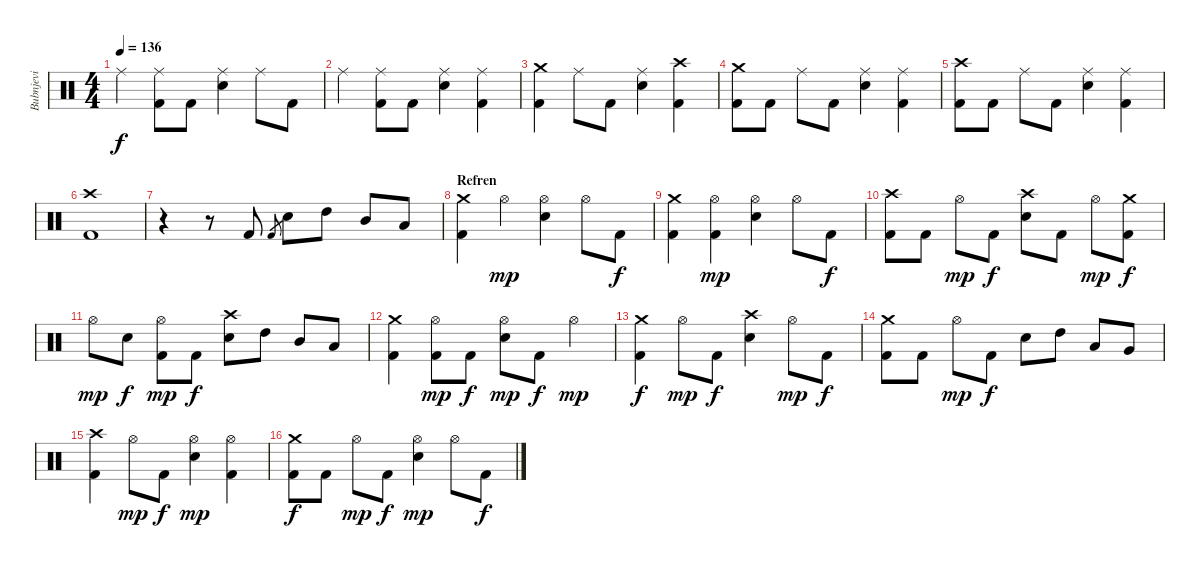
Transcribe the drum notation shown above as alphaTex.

\track ("Bubnjevi" "Bubnjevi") {instrument percussion}
\staff {score}
\articulation defaults
\ts (4 4)
\tempo 136
\clef neutral
\ks c "Ride (middle)".4{dy f}
("Ride (middle)" "Kick (hit) 2").8 "Kick (hit) 2".8 ("Ride (middle)" "Snare (hit) 2").4 "Ride (middle)".8 "Kick (hit) 2".8 |
"Ride (middle)".4 ("Ride (middle)" "Kick (hit) 2").8 "Kick (hit) 2".8 ("Ride (middle)" "Snare (hit) 2").4 ("Ride (middle)" "Kick (hit) 2").4 |
("Crash medium (hit)" "Kick (hit) 2").4 "Ride (middle)".8 "Kick (hit) 2".8 ("Ride (middle)" "Snare (hit) 2").4 ("Crash high (hit)" "Kick (hit) 2").4 |
("Crash medium (hit)" "Kick (hit) 2").8 "Kick (hit) 2".8 "Ride (middle)".8 "Kick (hit) 2".8 ("Ride (middle)" "Snare (hit) 2").4 ("Ride (middle)" "Kick (hit) 2").4 |
("Crash high (hit)" "Kick (hit) 2").8 "Kick (hit) 2".8 "Ride (middle)".8 "Kick (hit) 2".8 ("Ride (middle)" "Snare (hit) 2").4 ("Ride (middle)" "Kick (hit) 2").4 |
("Crash high (hit)" "Kick (hit) 2").1 |
r.4 r.8 "Kick (hit) 2".8 "Kick (hit) 2".8{gr} "Snare (hit) 2".8 "High Tom (hit)".8 "Mid Tom (hit)".8 "Low Tom (hit)".8 |
\section ("" "Refren")
("Crash medium (hit)" "Kick (hit) 2").4 "Hi-Hat (open)".4{dy mp} ("Hi-Hat (open)" "Snare (hit) 2").4 "Hi-Hat (open)".8 "Kick (hit) 2".8{dy f} |
("Crash medium (hit)" "Kick (hit) 2").4 ("Hi-Hat (open)" "Kick (hit) 2").4{dy mp} ("Hi-Hat (open)" "Snare (hit) 2").4 "Hi-Hat (open)".8 "Kick (hit) 2".8{dy f} |
("Crash high (hit)" "Kick (hit) 2").8 "Kick (hit) 2".8 "Hi-Hat (open)".8{dy mp} "Kick (hit) 2".8{dy f} ("Crash high (hit)" "Snare (hit) 2").8 "Kick (hit) 2".8 "Hi-Hat (open)".8{dy mp} ("Crash medium (hit)" "Kick (hit) 2").8{dy f} |
"Hi-Hat (open)".8{dy mp} "Snare (hit) 2".8{dy f} ("Hi-Hat (open)" "Kick (hit) 2").8{dy mp} "Kick (hit) 2".8{dy f} ("Crash high (hit)" "Snare (hit) 2").8 "High Tom (hit)".8 "Mid Tom (hit)".8 "Low Tom (hit)".8 |
("Crash medium (hit)" "Kick (hit) 2").4 ("Hi-Hat (open)" "Kick (hit) 2").8{dy mp} "Kick (hit) 2".8{dy f} ("Hi-Hat (open)" "Snare (hit) 2").8{dy mp} "Kick (hit) 2".8{dy f} "Hi-Hat (open)".4{dy mp} |
("Crash medium (hit)" "Kick (hit) 2").4{dy f} "Hi-Hat (open)".8{dy mp} "Kick (hit) 2".8{dy f} ("Crash high (hit)" "Snare (hit) 2").4 "Hi-Hat (open)".8{dy mp} "Kick (hit) 2".8{dy f} |
("Crash medium (hit)" "Kick (hit) 2").8 "Kick (hit) 2".8 "Hi-Hat (open)".8{dy mp} "Kick (hit) 2".8{dy f} "Snare (hit) 2".8 "High Tom (hit)".8 "Low Tom (hit)".8 "Very Low Tom (hit)".8 |
("Crash high (hit)" "Kick (hit) 2").4 "Hi-Hat (open)".8{dy mp} "Kick (hit) 2".8{dy f} ("Hi-Hat (open)" "Snare (hit) 2").4{dy mp} ("Hi-Hat (open)" "Kick (hit) 2").4 |
("Crash medium (hit)" "Kick (hit) 2").8{dy f} "Kick (hit) 2".8 "Hi-Hat (open)".8{dy mp} "Kick (hit) 2".8{dy f} ("Hi-Hat (open)" "Snare (hit) 2").4{dy mp} "Hi-Hat (open)".8 "Kick (hit) 2".8{dy f}
